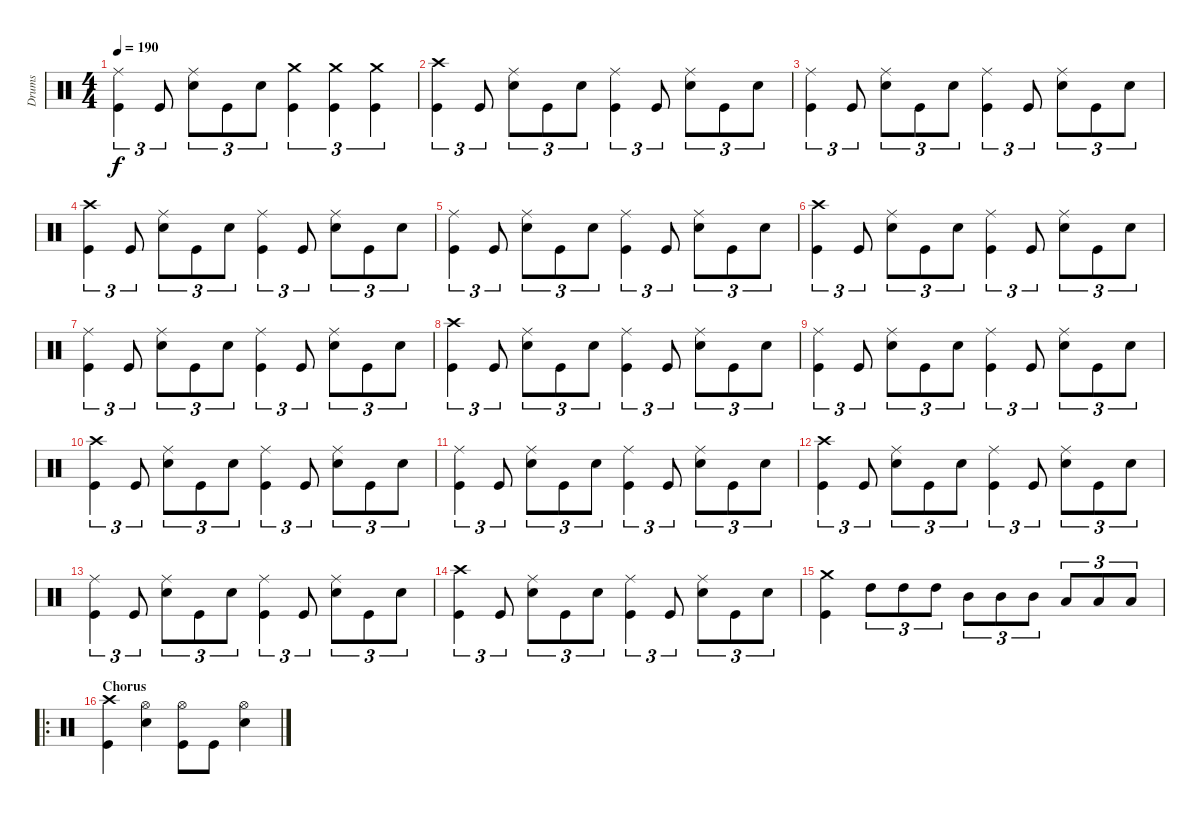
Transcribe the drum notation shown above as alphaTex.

\track ("Drums" "Drums") {instrument percussion}
\staff {score}
\articulation defaults
\ts (4 4)
\tempo 190
\clef neutral
\ks c
("Ride (middle)" "Kick (hit)").4{tu (3 2) dy f} "Kick (hit)".8{tu (3 2)} ("Ride (middle)" "Snare (hit) 2").8{tu (3 2)} "Kick (hit)".8{tu (3 2)} "Snare (hit) 2".8{tu (3 2)} ("Crash medium (hit)" "Kick (hit)").4{tu (3 2)} ("Crash medium (hit)" "Kick (hit)").4{tu (3 2)} ("Crash medium (hit)" "Kick (hit)").4{tu (3 2)} |
("Crash high (hit)" "Kick (hit)").4{tu (3 2)} "Kick (hit)".8{tu (3 2)} ("Ride (middle)" "Snare (hit) 2").8{tu (3 2)} "Kick (hit)".8{tu (3 2)} "Snare (hit) 2".8{tu (3 2)} ("Ride (middle)" "Kick (hit)").4{tu (3 2)} "Kick (hit)".8{tu (3 2)} ("Ride (middle)" "Snare (hit) 2").8{tu (3 2)} "Kick (hit)".8{tu (3 2)} "Snare (hit) 2".8{tu (3 2)} |
("Ride (middle)" "Kick (hit)").4{tu (3 2)} "Kick (hit)".8{tu (3 2)} ("Ride (middle)" "Snare (hit) 2").8{tu (3 2)} "Kick (hit)".8{tu (3 2)} "Snare (hit) 2".8{tu (3 2)} ("Ride (middle)" "Kick (hit)").4{tu (3 2)} "Kick (hit)".8{tu (3 2)} ("Ride (middle)" "Snare (hit) 2").8{tu (3 2)} "Kick (hit)".8{tu (3 2)} "Snare (hit) 2".8{tu (3 2)} |
("Crash high (hit)" "Kick (hit)").4{tu (3 2)} "Kick (hit)".8{tu (3 2)} ("Ride (middle)" "Snare (hit) 2").8{tu (3 2)} "Kick (hit)".8{tu (3 2)} "Snare (hit) 2".8{tu (3 2)} ("Ride (middle)" "Kick (hit)").4{tu (3 2)} "Kick (hit)".8{tu (3 2)} ("Ride (middle)" "Snare (hit) 2").8{tu (3 2)} "Kick (hit)".8{tu (3 2)} "Snare (hit) 2".8{tu (3 2)} |
("Ride (middle)" "Kick (hit)").4{tu (3 2)} "Kick (hit)".8{tu (3 2)} ("Ride (middle)" "Snare (hit) 2").8{tu (3 2)} "Kick (hit)".8{tu (3 2)} "Snare (hit) 2".8{tu (3 2)} ("Ride (middle)" "Kick (hit)").4{tu (3 2)} "Kick (hit)".8{tu (3 2)} ("Ride (middle)" "Snare (hit) 2").8{tu (3 2)} "Kick (hit)".8{tu (3 2)} "Snare (hit) 2".8{tu (3 2)} |
("Crash high (hit)" "Kick (hit)").4{tu (3 2)} "Kick (hit)".8{tu (3 2)} ("Ride (middle)" "Snare (hit) 2").8{tu (3 2)} "Kick (hit)".8{tu (3 2)} "Snare (hit) 2".8{tu (3 2)} ("Ride (middle)" "Kick (hit)").4{tu (3 2)} "Kick (hit)".8{tu (3 2)} ("Ride (middle)" "Snare (hit) 2").8{tu (3 2)} "Kick (hit)".8{tu (3 2)} "Snare (hit) 2".8{tu (3 2)} |
("Ride (middle)" "Kick (hit)").4{tu (3 2)} "Kick (hit)".8{tu (3 2)} ("Ride (middle)" "Snare (hit) 2").8{tu (3 2)} "Kick (hit)".8{tu (3 2)} "Snare (hit) 2".8{tu (3 2)} ("Ride (middle)" "Kick (hit)").4{tu (3 2)} "Kick (hit)".8{tu (3 2)} ("Ride (middle)" "Snare (hit) 2").8{tu (3 2)} "Kick (hit)".8{tu (3 2)} "Snare (hit) 2".8{tu (3 2)} |
("Crash high (hit)" "Kick (hit)").4{tu (3 2)} "Kick (hit)".8{tu (3 2)} ("Ride (middle)" "Snare (hit) 2").8{tu (3 2)} "Kick (hit)".8{tu (3 2)} "Snare (hit) 2".8{tu (3 2)} ("Ride (middle)" "Kick (hit)").4{tu (3 2)} "Kick (hit)".8{tu (3 2)} ("Ride (middle)" "Snare (hit) 2").8{tu (3 2)} "Kick (hit)".8{tu (3 2)} "Snare (hit) 2".8{tu (3 2)} |
("Ride (middle)" "Kick (hit)").4{tu (3 2)} "Kick (hit)".8{tu (3 2)} ("Ride (middle)" "Snare (hit) 2").8{tu (3 2)} "Kick (hit)".8{tu (3 2)} "Snare (hit) 2".8{tu (3 2)} ("Ride (middle)" "Kick (hit)").4{tu (3 2)} "Kick (hit)".8{tu (3 2)} ("Ride (middle)" "Snare (hit) 2").8{tu (3 2)} "Kick (hit)".8{tu (3 2)} "Snare (hit) 2".8{tu (3 2)} |
("Crash high (hit)" "Kick (hit)").4{tu (3 2)} "Kick (hit)".8{tu (3 2)} ("Ride (middle)" "Snare (hit) 2").8{tu (3 2)} "Kick (hit)".8{tu (3 2)} "Snare (hit) 2".8{tu (3 2)} ("Ride (middle)" "Kick (hit)").4{tu (3 2)} "Kick (hit)".8{tu (3 2)} ("Ride (middle)" "Snare (hit) 2").8{tu (3 2)} "Kick (hit)".8{tu (3 2)} "Snare (hit) 2".8{tu (3 2)} |
("Ride (middle)" "Kick (hit)").4{tu (3 2)} "Kick (hit)".8{tu (3 2)} ("Ride (middle)" "Snare (hit) 2").8{tu (3 2)} "Kick (hit)".8{tu (3 2)} "Snare (hit) 2".8{tu (3 2)} ("Ride (middle)" "Kick (hit)").4{tu (3 2)} "Kick (hit)".8{tu (3 2)} ("Ride (middle)" "Snare (hit) 2").8{tu (3 2)} "Kick (hit)".8{tu (3 2)} "Snare (hit) 2".8{tu (3 2)} |
("Crash high (hit)" "Kick (hit)").4{tu (3 2)} "Kick (hit)".8{tu (3 2)} ("Ride (middle)" "Snare (hit) 2").8{tu (3 2)} "Kick (hit)".8{tu (3 2)} "Snare (hit) 2".8{tu (3 2)} ("Ride (middle)" "Kick (hit)").4{tu (3 2)} "Kick (hit)".8{tu (3 2)} ("Ride (middle)" "Snare (hit) 2").8{tu (3 2)} "Kick (hit)".8{tu (3 2)} "Snare (hit) 2".8{tu (3 2)} |
("Ride (middle)" "Kick (hit)").4{tu (3 2)} "Kick (hit)".8{tu (3 2)} ("Ride (middle)" "Snare (hit) 2").8{tu (3 2)} "Kick (hit)".8{tu (3 2)} "Snare (hit) 2".8{tu (3 2)} ("Ride (middle)" "Kick (hit)").4{tu (3 2)} "Kick (hit)".8{tu (3 2)} ("Ride (middle)" "Snare (hit) 2").8{tu (3 2)} "Kick (hit)".8{tu (3 2)} "Snare (hit) 2".8{tu (3 2)} |
("Crash high (hit)" "Kick (hit)").4{tu (3 2)} "Kick (hit)".8{tu (3 2)} ("Ride (middle)" "Snare (hit) 2").8{tu (3 2)} "Kick (hit)".8{tu (3 2)} "Snare (hit) 2".8{tu (3 2)} ("Ride (middle)" "Kick (hit)").4{tu (3 2)} "Kick (hit)".8{tu (3 2)} ("Ride (middle)" "Snare (hit) 2").8{tu (3 2)} "Kick (hit)".8{tu (3 2)} "Snare (hit) 2".8{tu (3 2)} |
("Crash medium (hit)" "Kick (hit)").4 "High Tom (hit)".8{tu (3 2)} "High Tom (hit)".8{tu (3 2)} "High Tom (hit)".8{tu (3 2)} "Mid Tom (hit)".8{tu (3 2)} "Mid Tom (hit)".8{tu (3 2)} "Mid Tom (hit)".8{tu (3 2)} "Low Tom (hit)".8{tu (3 2)} "Low Tom (hit)".8{tu (3 2)} "Low Tom (hit)".8{tu (3 2)} |
\ro
\section ("" "Chorus")
("Crash high (hit)" "Kick (hit)").4 ("Hi-Hat (open)" "Snare (hit) 2").4 ("Hi-Hat (open)" "Kick (hit)").8 "Kick (hit)".8 ("Hi-Hat (open)" "Snare (hit) 2").4
